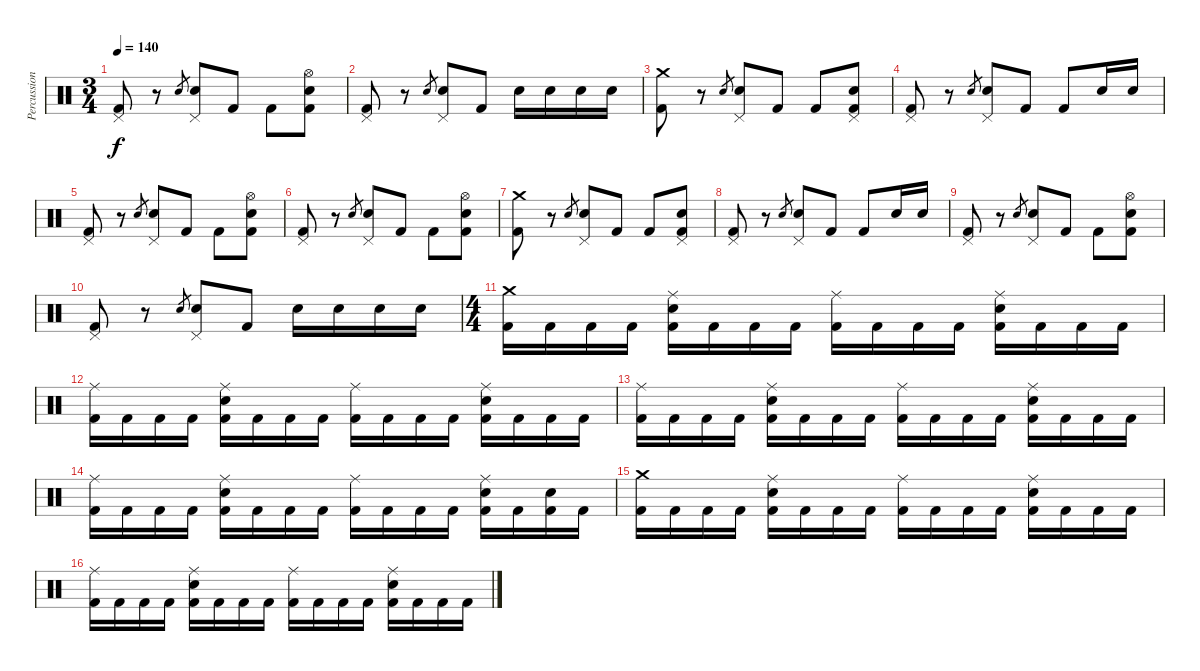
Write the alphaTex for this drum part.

\track ("Percussion" "Percussion") {instrument percussion}
\staff {score}
\articulation defaults
\ts (3 4)
\tempo 140
\clef neutral
\ks c
("Pedal Hi-Hat (hit)" "Kick (hit) 2").8{dy f} r.8 "Electric Snare (hit)".8{gr} ("Pedal Hi-Hat (hit)" "Electric Snare (hit)").8 "Kick (hit) 2".8 "Kick (hit) 2".8 ("Hi-Hat (open)" "Electric Snare (hit)" "Kick (hit) 2").8 |
("Pedal Hi-Hat (hit)" "Kick (hit) 2").8 r.8 "Electric Snare (hit)".8{gr} ("Pedal Hi-Hat (hit)" "Electric Snare (hit)").8 "Kick (hit) 2".8 "Electric Snare (hit)".16 "Electric Snare (hit)".16 "Electric Snare (hit)".16 "Electric Snare (hit)".16 |
("Crash medium (hit)" "Kick (hit) 2").8 r.8 "Electric Snare (hit)".8{gr} ("Pedal Hi-Hat (hit)" "Electric Snare (hit)").8 "Kick (hit) 2".8 "Kick (hit) 2".8 ("Pedal Hi-Hat (hit)" "Electric Snare (hit)" "Kick (hit) 2").8 |
("Pedal Hi-Hat (hit)" "Kick (hit) 2").8 r.8 "Electric Snare (hit)".8{gr} ("Pedal Hi-Hat (hit)" "Electric Snare (hit)").8 "Kick (hit) 2".8 "Kick (hit) 2".8 "Electric Snare (hit)".16 "Electric Snare (hit)".16 |
("Pedal Hi-Hat (hit)" "Kick (hit) 2").8 r.8 "Electric Snare (hit)".8{gr} ("Pedal Hi-Hat (hit)" "Electric Snare (hit)").8 "Kick (hit) 2".8 "Kick (hit) 2".8 ("Hi-Hat (open)" "Electric Snare (hit)" "Kick (hit) 2").8 |
("Pedal Hi-Hat (hit)" "Kick (hit) 2").8 r.8 "Electric Snare (hit)".8{gr} ("Pedal Hi-Hat (hit)" "Electric Snare (hit)").8 "Kick (hit) 2".8 "Kick (hit) 2".8 ("Hi-Hat (open)" "Electric Snare (hit)" "Kick (hit) 2").8 |
("Crash medium (hit)" "Kick (hit) 2").8 r.8 "Electric Snare (hit)".8{gr} ("Pedal Hi-Hat (hit)" "Electric Snare (hit)").8 "Kick (hit) 2".8 "Kick (hit) 2".8 ("Pedal Hi-Hat (hit)" "Electric Snare (hit)" "Kick (hit) 2").8 |
("Pedal Hi-Hat (hit)" "Kick (hit) 2").8 r.8 "Electric Snare (hit)".8{gr} ("Pedal Hi-Hat (hit)" "Electric Snare (hit)").8 "Kick (hit) 2".8 "Kick (hit) 2".8 "Electric Snare (hit)".16 "Electric Snare (hit)".16 |
("Pedal Hi-Hat (hit)" "Kick (hit) 2").8 r.8 "Electric Snare (hit)".8{gr} ("Pedal Hi-Hat (hit)" "Electric Snare (hit)").8 "Kick (hit) 2".8 "Kick (hit) 2".8 ("Hi-Hat (open)" "Electric Snare (hit)" "Kick (hit) 2").8 |
("Pedal Hi-Hat (hit)" "Kick (hit) 2").8 r.8 "Electric Snare (hit)".8{gr} ("Pedal Hi-Hat (hit)" "Electric Snare (hit)").8 "Kick (hit) 2".8 "Electric Snare (hit)".16 "Electric Snare (hit)".16 "Electric Snare (hit)".16 "Electric Snare (hit)".16 |
\ts (4 4)
("Crash medium (hit)" "Kick (hit) 2").16 "Kick (hit) 2".16 "Kick (hit) 2".16 "Kick (hit) 2".16 ("Ride (middle)" "Electric Snare (hit)" "Kick (hit) 2").16 "Kick (hit) 2".16 "Kick (hit) 2".16 "Kick (hit) 2".16 ("Ride (middle)" "Kick (hit) 2").16 "Kick (hit) 2".16 "Kick (hit) 2".16 "Kick (hit) 2".16 ("Ride (middle)" "Electric Snare (hit)" "Kick (hit) 2").16 "Kick (hit) 2".16 "Kick (hit) 2".16 "Kick (hit) 2".16 |
("Ride (middle)" "Kick (hit) 2").16 "Kick (hit) 2".16 "Kick (hit) 2".16 "Kick (hit) 2".16 ("Ride (middle)" "Electric Snare (hit)" "Kick (hit) 2").16 "Kick (hit) 2".16 "Kick (hit) 2".16 "Kick (hit) 2".16 ("Ride (middle)" "Kick (hit) 2").16 "Kick (hit) 2".16 "Kick (hit) 2".16 "Kick (hit) 2".16 ("Ride (middle)" "Electric Snare (hit)" "Kick (hit) 2").16 "Kick (hit) 2".16 "Kick (hit) 2".16 "Kick (hit) 2".16 |
("Ride (middle)" "Kick (hit) 2").16 "Kick (hit) 2".16 "Kick (hit) 2".16 "Kick (hit) 2".16 ("Ride (middle)" "Electric Snare (hit)" "Kick (hit) 2").16 "Kick (hit) 2".16 "Kick (hit) 2".16 "Kick (hit) 2".16 ("Ride (middle)" "Kick (hit) 2").16 "Kick (hit) 2".16 "Kick (hit) 2".16 "Kick (hit) 2".16 ("Ride (middle)" "Electric Snare (hit)" "Kick (hit) 2").16 "Kick (hit) 2".16 "Kick (hit) 2".16 "Kick (hit) 2".16 |
("Ride (middle)" "Kick (hit) 2").16 "Kick (hit) 2".16 "Kick (hit) 2".16 "Kick (hit) 2".16 ("Ride (middle)" "Electric Snare (hit)" "Kick (hit) 2").16 "Kick (hit) 2".16 "Kick (hit) 2".16 "Kick (hit) 2".16 ("Ride (middle)" "Kick (hit) 2").16 "Kick (hit) 2".16 "Kick (hit) 2".16 "Kick (hit) 2".16 ("Ride (middle)" "Electric Snare (hit)" "Kick (hit) 2").16 "Kick (hit) 2".16 ("Electric Snare (hit)" "Kick (hit) 2").16 "Kick (hit) 2".16 |
("Crash medium (hit)" "Kick (hit) 2").16 "Kick (hit) 2".16 "Kick (hit) 2".16 "Kick (hit) 2".16 ("Ride (middle)" "Electric Snare (hit)" "Kick (hit) 2").16 "Kick (hit) 2".16 "Kick (hit) 2".16 "Kick (hit) 2".16 ("Ride (middle)" "Kick (hit) 2").16 "Kick (hit) 2".16 "Kick (hit) 2".16 "Kick (hit) 2".16 ("Ride (middle)" "Electric Snare (hit)" "Kick (hit) 2").16 "Kick (hit) 2".16 "Kick (hit) 2".16 "Kick (hit) 2".16 |
("Ride (middle)" "Kick (hit) 2").16 "Kick (hit) 2".16 "Kick (hit) 2".16 "Kick (hit) 2".16 ("Ride (middle)" "Electric Snare (hit)" "Kick (hit) 2").16 "Kick (hit) 2".16 "Kick (hit) 2".16 "Kick (hit) 2".16 ("Ride (middle)" "Kick (hit) 2").16 "Kick (hit) 2".16 "Kick (hit) 2".16 "Kick (hit) 2".16 ("Ride (middle)" "Electric Snare (hit)" "Kick (hit) 2").16 "Kick (hit) 2".16 "Kick (hit) 2".16 "Kick (hit) 2".16
